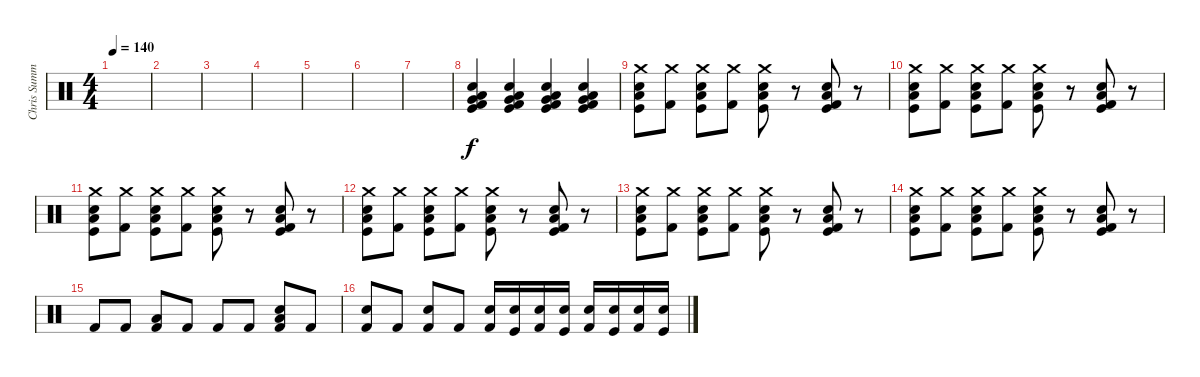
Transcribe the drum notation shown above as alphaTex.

\track ("Chris Summers" "Chris Summ") {instrument percussion}
\staff {score}
\articulation defaults
\ts (4 4)
\tempo 140
\clef neutral
\ks c
|
|
|
|
|
|
|
("Very Low Tom (hit)" "Low Floor Tom (hit)" "Snare (hit) 2" "Kick (hit) 2" "Kick (hit)").4 ("Very Low Tom (hit)" "Low Floor Tom (hit)" "Snare (hit) 2" "Kick (hit) 2" "Kick (hit)").4 ("Very Low Tom (hit)" "Low Floor Tom (hit)" "Snare (hit) 2" "Kick (hit) 2" "Kick (hit)").4 ("Very Low Tom (hit)" "Low Floor Tom (hit)" "Snare (hit) 2" "Kick (hit) 2" "Kick (hit)").4 |
("Crash medium (hit)" "Low Floor Tom (hit)" "Snare (hit) 2" "Kick (hit)").8 ("Crash medium (hit)" "Kick (hit) 2").8 ("Crash medium (hit)" "Low Floor Tom (hit)" "Snare (hit) 2" "Kick (hit)").8 ("Crash medium (hit)" "Kick (hit) 2").8 ("Crash medium (hit)" "Low Floor Tom (hit)" "Snare (hit) 2" "Kick (hit)").8 r.8 ("Kick (hit)" "Low Floor Tom (hit)" "Snare (hit) 2" "Kick (hit) 2").8 r.8 |
("Crash medium (hit)" "Low Floor Tom (hit)" "Snare (hit) 2" "Kick (hit)").8 ("Crash medium (hit)" "Kick (hit) 2").8 ("Crash medium (hit)" "Low Floor Tom (hit)" "Snare (hit) 2" "Kick (hit)").8 ("Crash medium (hit)" "Kick (hit) 2").8 ("Crash medium (hit)" "Low Floor Tom (hit)" "Snare (hit) 2" "Kick (hit)").8 r.8 ("Kick (hit)" "Low Floor Tom (hit)" "Snare (hit) 2" "Kick (hit) 2").8 r.8 |
("Crash medium (hit)" "Low Floor Tom (hit)" "Snare (hit) 2" "Kick (hit)").8 ("Crash medium (hit)" "Kick (hit) 2").8 ("Crash medium (hit)" "Low Floor Tom (hit)" "Snare (hit) 2" "Kick (hit)").8 ("Crash medium (hit)" "Kick (hit) 2").8 ("Crash medium (hit)" "Low Floor Tom (hit)" "Snare (hit) 2" "Kick (hit)").8 r.8 ("Kick (hit)" "Low Floor Tom (hit)" "Snare (hit) 2" "Kick (hit) 2").8 r.8 |
("Crash medium (hit)" "Low Floor Tom (hit)" "Snare (hit) 2" "Kick (hit)").8 ("Crash medium (hit)" "Kick (hit) 2").8 ("Crash medium (hit)" "Low Floor Tom (hit)" "Snare (hit) 2" "Kick (hit)").8 ("Crash medium (hit)" "Kick (hit) 2").8 ("Crash medium (hit)" "Low Floor Tom (hit)" "Snare (hit) 2" "Kick (hit)").8 r.8 ("Kick (hit)" "Low Floor Tom (hit)" "Snare (hit) 2" "Kick (hit) 2").8 r.8 |
("Crash medium (hit)" "Low Floor Tom (hit)" "Snare (hit) 2" "Kick (hit)").8 ("Crash medium (hit)" "Kick (hit) 2").8 ("Crash medium (hit)" "Low Floor Tom (hit)" "Snare (hit) 2" "Kick (hit)").8 ("Crash medium (hit)" "Kick (hit) 2").8 ("Crash medium (hit)" "Low Floor Tom (hit)" "Snare (hit) 2" "Kick (hit)").8 r.8 ("Kick (hit)" "Low Floor Tom (hit)" "Snare (hit) 2" "Kick (hit) 2").8 r.8 |
("Crash medium (hit)" "Low Floor Tom (hit)" "Snare (hit) 2" "Kick (hit)").8 ("Crash medium (hit)" "Kick (hit) 2").8 ("Crash medium (hit)" "Low Floor Tom (hit)" "Snare (hit) 2" "Kick (hit)").8 ("Crash medium (hit)" "Kick (hit) 2").8 ("Crash medium (hit)" "Low Floor Tom (hit)" "Snare (hit) 2" "Kick (hit)").8 r.8 ("Kick (hit)" "Low Floor Tom (hit)" "Snare (hit) 2" "Kick (hit) 2").8 r.8 |
"Kick (hit) 2".8 "Kick (hit) 2".8 ("Low Floor Tom (hit)" "Kick (hit) 2").8 "Kick (hit) 2".8 "Kick (hit) 2".8 "Kick (hit) 2".8 ("Snare (hit) 2" "Low Floor Tom (hit)" "Kick (hit) 2").8 "Kick (hit) 2".8 |
("Snare (hit) 2" "Kick (hit) 2").8 "Kick (hit) 2".8 ("Kick (hit) 2" "Snare (hit) 2").8 "Kick (hit) 2".8 ("Snare (hit) 2" "Kick (hit) 2").16 ("Snare (hit) 2" "Kick (hit)").16 ("Snare (hit) 2" "Kick (hit) 2").16 ("Snare (hit) 2" "Kick (hit)").16 ("Snare (hit) 2" "Kick (hit) 2").16 ("Snare (hit) 2" "Kick (hit)").16 ("Snare (hit) 2" "Kick (hit) 2").16 ("Snare (hit) 2" "Kick (hit)").16
